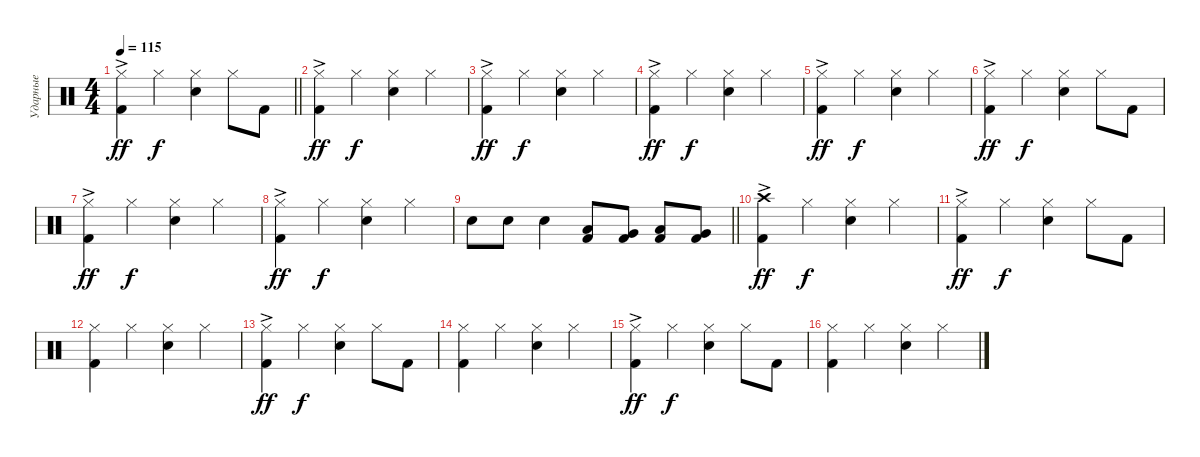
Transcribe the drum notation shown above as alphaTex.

\track ("Ударные" "Ударные") {instrument percussion}
\staff {score}
\articulation defaults
\ts (4 4)
\tempo 115
\clef neutral
\barLineRight lightlight
\ks c
("Kick (hit) 2" "Hi-Hat (closed)"{ac}).4{dy ff} "Hi-Hat (closed)".4{dy f} ("Snare (hit) 2" "Hi-Hat (closed)").4 "Hi-Hat (closed)".8 "Kick (hit) 2".8 |
("Kick (hit) 2" "Hi-Hat (closed)"{ac}).4{dy ff} "Hi-Hat (closed)".4{dy f} ("Snare (hit) 2" "Hi-Hat (closed)").4 "Hi-Hat (closed)".4 |
("Kick (hit) 2" "Hi-Hat (closed)"{ac}).4{dy ff} "Hi-Hat (closed)".4{dy f} ("Snare (hit) 2" "Hi-Hat (closed)").4 "Hi-Hat (closed)".4 |
("Kick (hit) 2" "Hi-Hat (closed)"{ac}).4{dy ff} "Hi-Hat (closed)".4{dy f} ("Snare (hit) 2" "Hi-Hat (closed)").4 "Hi-Hat (closed)".4 |
("Kick (hit) 2" "Hi-Hat (closed)"{ac}).4{dy ff} "Hi-Hat (closed)".4{dy f} ("Snare (hit) 2" "Hi-Hat (closed)").4 "Hi-Hat (closed)".4 |
("Kick (hit) 2" "Hi-Hat (closed)"{ac}).4{dy ff} "Hi-Hat (closed)".4{dy f} ("Snare (hit) 2" "Hi-Hat (closed)").4 "Hi-Hat (closed)".8 "Kick (hit) 2".8 |
("Kick (hit) 2" "Hi-Hat (closed)"{ac}).4{dy ff} "Hi-Hat (closed)".4{dy f} ("Snare (hit) 2" "Hi-Hat (closed)").4 "Hi-Hat (closed)".4 |
("Kick (hit) 2" "Hi-Hat (closed)"{ac}).4{dy ff} "Hi-Hat (closed)".4{dy f} ("Snare (hit) 2" "Hi-Hat (closed)").4 "Hi-Hat (closed)".4 |
\barLineRight lightlight "Snare (hit) 2".8 "Snare (hit) 2".8 "Snare (hit) 2".4
("Kick (hit) 2" "Low Floor Tom (hit)").8 ("Kick (hit) 2" "Very Low Tom (hit)").8 ("Kick (hit) 2" "Low Floor Tom (hit)").8 ("Kick (hit) 2" "Very Low Tom (hit)").8 |
("Kick (hit) 2" "Crash high (hit)"{ac}).4{dy ff} "Hi-Hat (closed)".4{dy f} ("Snare (hit) 2" "Hi-Hat (closed)").4 "Hi-Hat (closed)".4 |
("Kick (hit) 2" "Hi-Hat (closed)"{ac}).4{dy ff} "Hi-Hat (closed)".4{dy f} ("Snare (hit) 2" "Hi-Hat (closed)").4 "Hi-Hat (closed)".8 "Kick (hit) 2".8 |
("Kick (hit) 2" "Hi-Hat (closed)").4 "Hi-Hat (closed)".4 ("Snare (hit) 2" "Hi-Hat (closed)").4 "Hi-Hat (closed)".4 |
("Kick (hit) 2" "Hi-Hat (closed)"{ac}).4{dy ff} "Hi-Hat (closed)".4{dy f} ("Snare (hit) 2" "Hi-Hat (closed)").4 "Hi-Hat (closed)".8 "Kick (hit) 2".8 |
("Kick (hit) 2" "Hi-Hat (closed)").4 "Hi-Hat (closed)".4 ("Snare (hit) 2" "Hi-Hat (closed)").4 "Hi-Hat (closed)".4 |
("Kick (hit) 2" "Hi-Hat (closed)"{ac}).4{dy ff} "Hi-Hat (closed)".4{dy f} ("Snare (hit) 2" "Hi-Hat (closed)").4 "Hi-Hat (closed)".8 "Kick (hit) 2".8 |
("Kick (hit) 2" "Hi-Hat (closed)").4 "Hi-Hat (closed)".4 ("Snare (hit) 2" "Hi-Hat (closed)").4 "Hi-Hat (closed)".4
